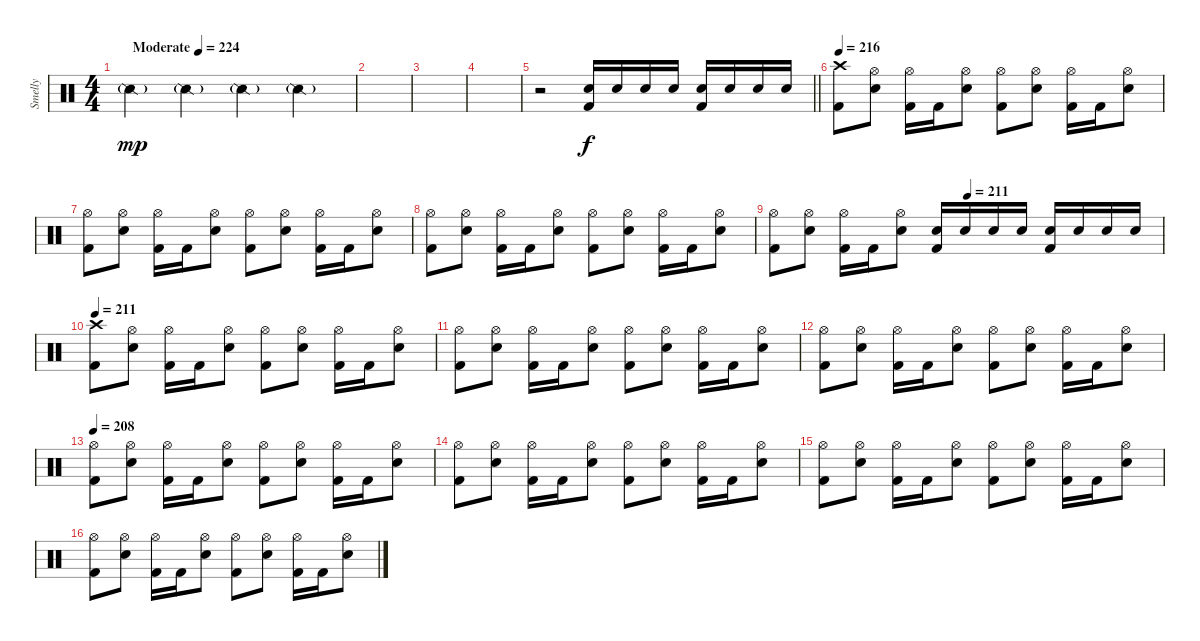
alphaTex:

\track ("Smelly" "Smelly") {instrument percussion}
\staff {score}
\articulation defaults
\ts (4 4)
\tempo (224 "Moderate")
\clef neutral
\ks c "Snare (side stick) 2"{g}.4{dy mp} "Snare (side stick) 2"{g}.4 "Snare (side stick) 2"{g}.4 "Snare (side stick) 2"{g}.4
|
|
|
|
\barLineRight lightlight
r.2 ("Electric Snare (hit)" "Kick (hit) 2").16{dy f} "Electric Snare (hit)".16 "Electric Snare (hit)".16 "Electric Snare (hit)".16 ("Electric Snare (hit)" "Kick (hit) 2").16 "Electric Snare (hit)".16 "Electric Snare (hit)".16 "Electric Snare (hit)".16 |
\section ("" "")
\tempo 216
("Crash high (hit)" "Kick (hit) 2").8 ("Hi-Hat (open)" "Electric Snare (hit)").8 ("Hi-Hat (open)" "Kick (hit) 2").16 "Kick (hit) 2".16 ("Hi-Hat (open)" "Electric Snare (hit)").8 ("Hi-Hat (open)" "Kick (hit) 2").8 ("Hi-Hat (open)" "Electric Snare (hit)").8 ("Hi-Hat (open)" "Kick (hit) 2").16 "Kick (hit) 2".16 ("Hi-Hat (open)" "Electric Snare (hit)").8 |
("Hi-Hat (open)" "Kick (hit) 2").8 ("Hi-Hat (open)" "Electric Snare (hit)").8 ("Hi-Hat (open)" "Kick (hit) 2").16 "Kick (hit) 2".16 ("Hi-Hat (open)" "Electric Snare (hit)").8 ("Hi-Hat (open)" "Kick (hit) 2").8 ("Hi-Hat (open)" "Electric Snare (hit)").8 ("Hi-Hat (open)" "Kick (hit) 2").16 "Kick (hit) 2".16 ("Hi-Hat (open)" "Electric Snare (hit)").8 |
("Hi-Hat (open)" "Kick (hit) 2").8 ("Hi-Hat (open)" "Electric Snare (hit)").8 ("Hi-Hat (open)" "Kick (hit) 2").16 "Kick (hit) 2".16 ("Hi-Hat (open)" "Electric Snare (hit)").8 ("Hi-Hat (open)" "Kick (hit) 2").8 ("Hi-Hat (open)" "Electric Snare (hit)").8 ("Hi-Hat (open)" "Kick (hit) 2").16 "Kick (hit) 2".16 ("Hi-Hat (open)" "Electric Snare (hit)").8 |
\tempo (211 0.5)
("Hi-Hat (open)" "Kick (hit) 2").8 ("Hi-Hat (open)" "Electric Snare (hit)").8 ("Hi-Hat (open)" "Kick (hit) 2").16 "Kick (hit) 2".16 ("Hi-Hat (open)" "Electric Snare (hit)").8 ("Electric Snare (hit)" "Kick (hit) 2").16 "Electric Snare (hit)".16 "Electric Snare (hit)".16 "Electric Snare (hit)".16 ("Electric Snare (hit)" "Kick (hit) 2").16 "Electric Snare (hit)".16 "Electric Snare (hit)".16 "Electric Snare (hit)".16 |
\tempo 211
("Crash high (hit)" "Kick (hit) 2").8 ("Hi-Hat (open)" "Electric Snare (hit)").8 ("Hi-Hat (open)" "Kick (hit) 2").16 "Kick (hit) 2".16 ("Hi-Hat (open)" "Electric Snare (hit)").8 ("Hi-Hat (open)" "Kick (hit) 2").8 ("Hi-Hat (open)" "Electric Snare (hit)").8 ("Hi-Hat (open)" "Kick (hit) 2").16 "Kick (hit) 2".16 ("Hi-Hat (open)" "Electric Snare (hit)").8 |
("Hi-Hat (open)" "Kick (hit) 2").8 ("Hi-Hat (open)" "Electric Snare (hit)").8 ("Hi-Hat (open)" "Kick (hit) 2").16 "Kick (hit) 2".16 ("Hi-Hat (open)" "Electric Snare (hit)").8 ("Hi-Hat (open)" "Kick (hit) 2").8 ("Hi-Hat (open)" "Electric Snare (hit)").8 ("Hi-Hat (open)" "Kick (hit) 2").16 "Kick (hit) 2".16 ("Hi-Hat (open)" "Electric Snare (hit)").8 |
("Hi-Hat (open)" "Kick (hit) 2").8 ("Hi-Hat (open)" "Electric Snare (hit)").8 ("Hi-Hat (open)" "Kick (hit) 2").16 "Kick (hit) 2".16 ("Hi-Hat (open)" "Electric Snare (hit)").8 ("Hi-Hat (open)" "Kick (hit) 2").8 ("Hi-Hat (open)" "Electric Snare (hit)").8 ("Hi-Hat (open)" "Kick (hit) 2").16 "Kick (hit) 2".16 ("Hi-Hat (open)" "Electric Snare (hit)").8 |
\tempo 208
("Hi-Hat (open)" "Kick (hit) 2").8 ("Hi-Hat (open)" "Electric Snare (hit)").8 ("Hi-Hat (open)" "Kick (hit) 2").16 "Kick (hit) 2".16 ("Hi-Hat (open)" "Electric Snare (hit)").8 ("Hi-Hat (open)" "Kick (hit) 2").8 ("Hi-Hat (open)" "Electric Snare (hit)").8 ("Hi-Hat (open)" "Kick (hit) 2").16 "Kick (hit) 2".16 ("Hi-Hat (open)" "Electric Snare (hit)").8 |
("Hi-Hat (open)" "Kick (hit) 2").8 ("Hi-Hat (open)" "Electric Snare (hit)").8 ("Hi-Hat (open)" "Kick (hit) 2").16 "Kick (hit) 2".16 ("Hi-Hat (open)" "Electric Snare (hit)").8 ("Hi-Hat (open)" "Kick (hit) 2").8 ("Hi-Hat (open)" "Electric Snare (hit)").8 ("Hi-Hat (open)" "Kick (hit) 2").16 "Kick (hit) 2".16 ("Hi-Hat (open)" "Electric Snare (hit)").8 |
("Hi-Hat (open)" "Kick (hit) 2").8 ("Hi-Hat (open)" "Electric Snare (hit)").8 ("Hi-Hat (open)" "Kick (hit) 2").16 "Kick (hit) 2".16 ("Hi-Hat (open)" "Electric Snare (hit)").8 ("Hi-Hat (open)" "Kick (hit) 2").8 ("Hi-Hat (open)" "Electric Snare (hit)").8 ("Hi-Hat (open)" "Kick (hit) 2").16 "Kick (hit) 2".16 ("Hi-Hat (open)" "Electric Snare (hit)").8 |
("Hi-Hat (open)" "Kick (hit) 2").8 ("Hi-Hat (open)" "Electric Snare (hit)").8 ("Hi-Hat (open)" "Kick (hit) 2").16 "Kick (hit) 2".16 ("Hi-Hat (open)" "Electric Snare (hit)").8 ("Hi-Hat (open)" "Kick (hit) 2").8 ("Hi-Hat (open)" "Electric Snare (hit)").8 ("Hi-Hat (open)" "Kick (hit) 2").16 "Kick (hit) 2".16 ("Hi-Hat (open)" "Electric Snare (hit)").8
